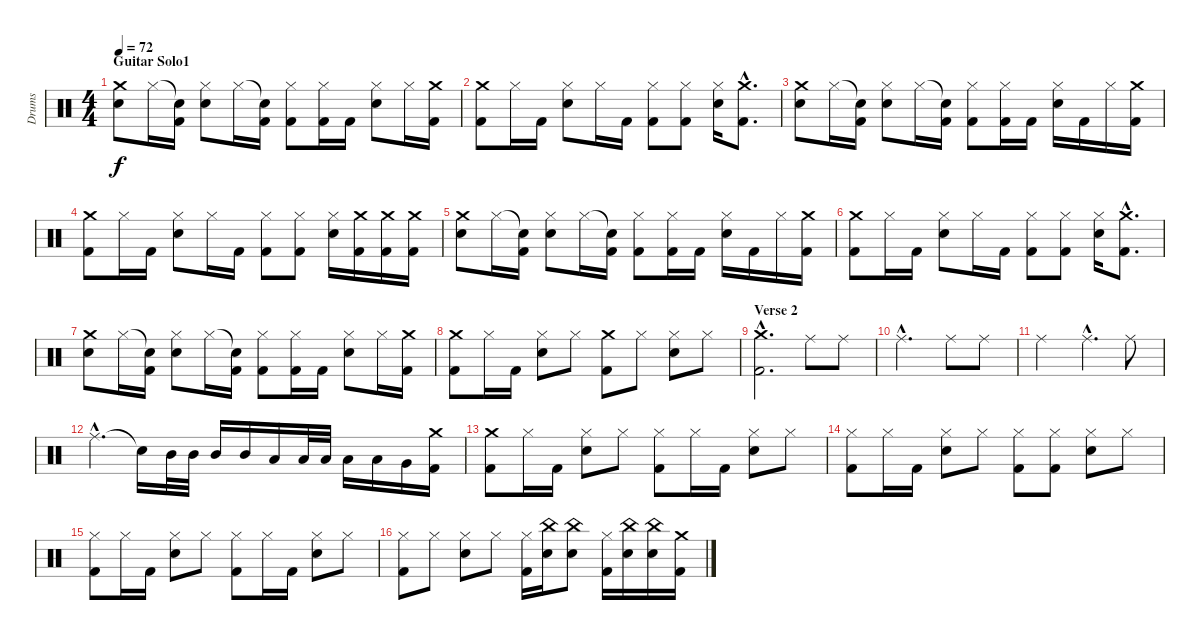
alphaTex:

\track ("Drums" "Drums") {instrument percussion}
\staff {score}
\articulation defaults
\ts (4 4)
\section ("" "Guitar Solo1")
\tempo 72
\clef neutral
\ks c
("Crash medium (hit)" "Snare (hit) 2").8{dy f} "Hi-Hat (closed)".16 ("Snare (hit)"{t} "Kick (hit) 2").16 ("Hi-Hat (closed)" "Snare (hit) 2").8 "Hi-Hat (closed)".16 ("Snare (hit)"{t} "Kick (hit) 2").16 ("Hi-Hat (closed)" "Kick (hit) 2").8 ("Hi-Hat (closed)" "Kick (hit) 2").16 "Kick (hit) 2".16 ("Hi-Hat (closed)" "Snare (hit) 2").8 "Hi-Hat (closed)".16 ("Crash medium (hit)" "Kick (hit) 2").16 |
("Crash medium (hit)" "Kick (hit) 2").8 "Hi-Hat (closed)".16 "Kick (hit) 2".16 ("Hi-Hat (closed)" "Snare (hit) 2").8 "Hi-Hat (closed)".16 "Kick (hit) 2".16 ("Hi-Hat (closed)" "Kick (hit) 2").8 ("Hi-Hat (closed)" "Kick (hit) 2").8 ("Hi-Hat (closed)" "Snare (hit) 2").16 ("Crash medium (hit)"{hac} "Kick (hit) 2"{hac}).8{d} |
("Crash medium (hit)" "Snare (hit) 2").8 "Hi-Hat (closed)".16 ("Snare (hit)"{t} "Kick (hit) 2").16 ("Hi-Hat (closed)" "Snare (hit) 2").8 "Hi-Hat (closed)".16 ("Snare (hit)"{t} "Kick (hit) 2").16 ("Hi-Hat (closed)" "Kick (hit) 2").8 ("Hi-Hat (closed)" "Kick (hit) 2").16 "Kick (hit) 2".16 ("Hi-Hat (closed)" "Snare (hit) 2").16 "Kick (hit) 2".16 "Hi-Hat (closed)".16 ("Crash medium (hit)" "Kick (hit) 2").16 |
("Crash medium (hit)" "Kick (hit) 2").8 "Hi-Hat (closed)".16 "Kick (hit) 2".16 ("Hi-Hat (closed)" "Snare (hit) 2").8 "Hi-Hat (closed)".16 "Kick (hit) 2".16 ("Hi-Hat (closed)" "Kick (hit) 2").8 ("Hi-Hat (closed)" "Kick (hit) 2").8 ("Hi-Hat (closed)" "Snare (hit) 2").16 ("Crash medium (hit)" "Kick (hit) 2").16 ("Crash medium (hit)" "Kick (hit) 2").16 ("Crash medium (hit)" "Kick (hit) 2").16 |
("Crash medium (hit)" "Snare (hit) 2").8 "Hi-Hat (closed)".16 ("Snare (hit)"{t} "Kick (hit) 2").16 ("Hi-Hat (closed)" "Snare (hit) 2").8 "Hi-Hat (closed)".16 ("Snare (hit)"{t} "Kick (hit) 2").16 ("Hi-Hat (closed)" "Kick (hit) 2").8 ("Hi-Hat (closed)" "Kick (hit) 2").16 "Kick (hit) 2".16 ("Hi-Hat (closed)" "Snare (hit) 2").16 "Kick (hit) 2".16 "Hi-Hat (closed)".16 ("Crash medium (hit)" "Kick (hit) 2").16 |
("Crash medium (hit)" "Kick (hit) 2").8 "Hi-Hat (closed)".16 "Kick (hit) 2".16 ("Hi-Hat (closed)" "Snare (hit) 2").8 "Hi-Hat (closed)".16 "Kick (hit) 2".16 ("Hi-Hat (closed)" "Kick (hit) 2").8 ("Hi-Hat (closed)" "Kick (hit) 2").8 ("Hi-Hat (closed)" "Snare (hit) 2").16 ("Crash medium (hit)"{hac} "Kick (hit) 2"{hac}).8{d} |
("Crash medium (hit)" "Snare (hit) 2").8 "Hi-Hat (closed)".16 ("Snare (hit)"{t} "Kick (hit) 2").16 ("Hi-Hat (closed)" "Snare (hit) 2").8 "Hi-Hat (closed)".16 ("Snare (hit)"{t} "Kick (hit) 2").16 ("Hi-Hat (closed)" "Kick (hit) 2").8 ("Hi-Hat (closed)" "Kick (hit) 2").16 "Kick (hit) 2".16 ("Hi-Hat (closed)" "Snare (hit) 2").8 "Hi-Hat (closed)".16 ("Crash medium (hit)" "Kick (hit) 2").16 |
("Crash medium (hit)" "Kick (hit) 2").8 "Hi-Hat (closed)".16 "Kick (hit) 2".16 ("Hi-Hat (closed)" "Snare (hit) 2").8 "Hi-Hat (closed)".8 ("Crash medium (hit)" "Kick (hit) 2").8 "Hi-Hat (closed)".8 ("Hi-Hat (closed)" "Snare (hit) 2").8 "Hi-Hat (closed)".8 |
\section ("" "Verse 2")
("Crash medium (hit)"{hac} "Kick (hit) 2"{hac}).2{d} "Ride (middle)".8 "Ride (middle)".8 |
"Ride (middle)"{hac}.2{d} "Ride (middle)".8 "Ride (middle)".8 |
"Ride (middle)".2 "Ride (middle)"{hac}.4{d} "Ride (middle)".8 |
"Ride (middle)"{hac}.4{d} "Snare (hit)"{t}.16 "Mid Tom (hit)".32 "Mid Tom (hit)".32 "Mid Tom (hit)".16 "Mid Tom (hit)".16 "Low Tom (hit)".16 "Low Tom (hit)".32 "Low Tom (hit)".32 "Low Tom (hit)".16 "Low Tom (hit)".16 "Very Low Tom (hit)".16 ("Crash medium (hit)" "Kick (hit) 2").16 |
("Crash medium (hit)" "Kick (hit) 2").8 "Hi-Hat (closed)".16 "Kick (hit) 2".16 ("Hi-Hat (closed)" "Snare (hit) 2").8 "Hi-Hat (closed)".8 ("Hi-Hat (closed)" "Kick (hit) 2").8 "Hi-Hat (closed)".16 "Kick (hit) 2".16 ("Hi-Hat (closed)" "Snare (hit) 2").8 "Hi-Hat (closed)".8 |
("Hi-Hat (closed)" "Kick (hit) 2").8 "Hi-Hat (closed)".16 "Kick (hit) 2".16 ("Hi-Hat (closed)" "Snare (hit) 2").8 "Hi-Hat (closed)".8 ("Hi-Hat (closed)" "Kick (hit) 2").8 ("Hi-Hat (closed)" "Kick (hit) 2").8 ("Hi-Hat (closed)" "Snare (hit) 2").8 "Hi-Hat (closed)".8 |
("Hi-Hat (closed)" "Kick (hit) 2").8 "Hi-Hat (closed)".16 "Kick (hit) 2".16 ("Hi-Hat (closed)" "Snare (hit) 2").8 "Hi-Hat (closed)".8 ("Hi-Hat (closed)" "Kick (hit) 2").8 "Hi-Hat (closed)".16 "Kick (hit) 2".16 ("Hi-Hat (closed)" "Snare (hit) 2").8 "Hi-Hat (closed)".8 |
("Hi-Hat (closed)" "Kick (hit) 2").8 "Hi-Hat (closed)".8 ("Hi-Hat (closed)" "Snare (hit) 2").8 "Hi-Hat (closed)".8 ("Hi-Hat (closed)" "Kick (hit) 2").16 ("China (hit)" "Snare (hit) 2").16 ("China (hit)" "Snare (hit) 2").8 ("Hi-Hat (closed)" "Kick (hit) 2").16 ("China (hit)" "Snare (hit) 2").16 ("China (hit)" "Snare (hit) 2").16 ("Crash medium (hit)" "Kick (hit) 2").16
